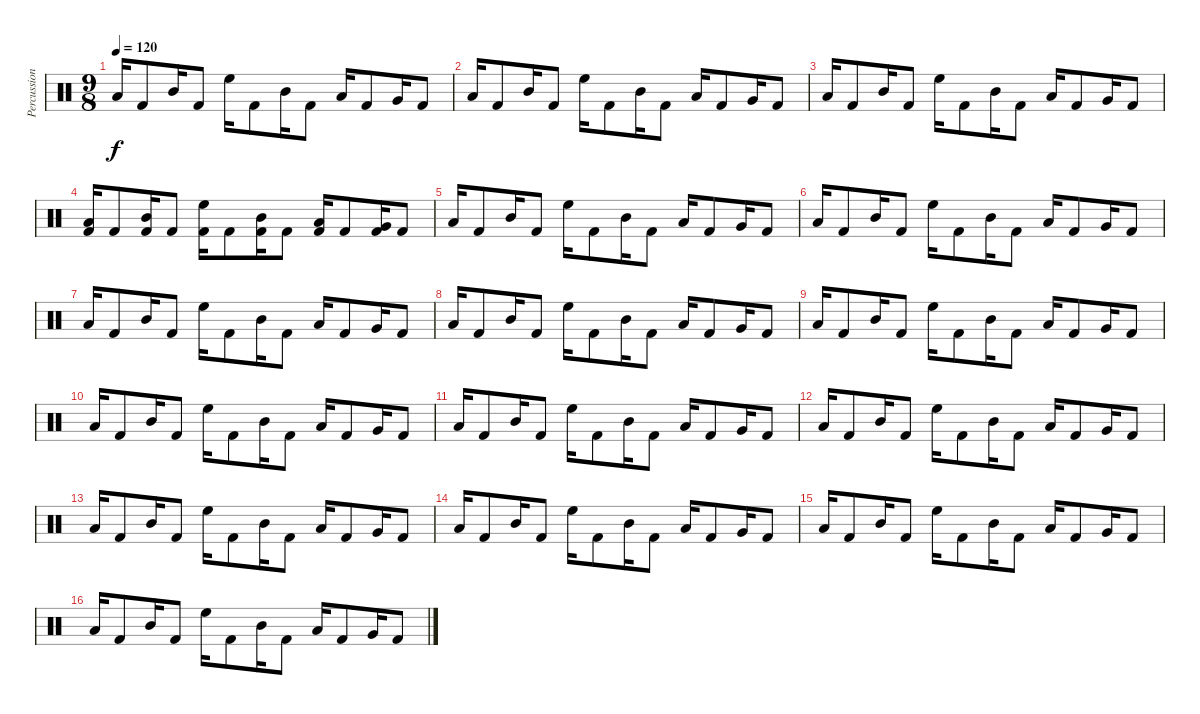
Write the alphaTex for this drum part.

\track ("Percussion" "Percussion") {instrument percussion}
\staff {score}
\articulation defaults
\ts (9 8)
\tempo 120
\clef neutral
\ks c "Low Tom (hit)".16{dy f} "Kick (hit) 2".8 "Mid Tom (hit)".16 "Kick (hit) 2".8 "High Floor Tom (hit)".16 "Kick (hit) 2".8 "Mid Tom (hit)".16 "Kick (hit) 2".8 "Low Tom (hit)".16 "Kick (hit) 2".8 "Very Low Tom (hit)".16 "Kick (hit) 2".8
|
"Low Tom (hit)".16 "Kick (hit) 2".8 "Mid Tom (hit)".16 "Kick (hit) 2".8 "High Floor Tom (hit)".16 "Kick (hit) 2".8 "Mid Tom (hit)".16 "Kick (hit) 2".8 "Low Tom (hit)".16 "Kick (hit) 2".8 "Very Low Tom (hit)".16 "Kick (hit) 2".8 |
"Low Tom (hit)".16 "Kick (hit) 2".8 "Mid Tom (hit)".16 "Kick (hit) 2".8 "High Floor Tom (hit)".16 "Kick (hit) 2".8 "Mid Tom (hit)".16 "Kick (hit) 2".8 "Low Tom (hit)".16 "Kick (hit) 2".8 "Very Low Tom (hit)".16 "Kick (hit) 2".8 |
("Kick (hit) 2" "Low Tom (hit)").16 "Kick (hit) 2".8 ("Kick (hit) 2" "Mid Tom (hit)").16 "Kick (hit) 2".8 ("Kick (hit) 2" "High Floor Tom (hit)").16 "Kick (hit) 2".8 ("Kick (hit) 2" "Mid Tom (hit)").16 "Kick (hit) 2".8 ("Kick (hit) 2" "Low Tom (hit)").16 "Kick (hit) 2".8 ("Kick (hit) 2" "Very Low Tom (hit)").16 "Kick (hit) 2".8 |
"Low Tom (hit)".16 "Kick (hit) 2".8 "Mid Tom (hit)".16 "Kick (hit) 2".8 "High Floor Tom (hit)".16 "Kick (hit) 2".8 "Mid Tom (hit)".16 "Kick (hit) 2".8 "Low Tom (hit)".16 "Kick (hit) 2".8 "Very Low Tom (hit)".16 "Kick (hit) 2".8 |
"Low Tom (hit)".16 "Kick (hit) 2".8 "Mid Tom (hit)".16 "Kick (hit) 2".8 "High Floor Tom (hit)".16 "Kick (hit) 2".8 "Mid Tom (hit)".16 "Kick (hit) 2".8 "Low Tom (hit)".16 "Kick (hit) 2".8 "Very Low Tom (hit)".16 "Kick (hit) 2".8 |
"Low Tom (hit)".16 "Kick (hit) 2".8 "Mid Tom (hit)".16 "Kick (hit) 2".8 "High Floor Tom (hit)".16 "Kick (hit) 2".8 "Mid Tom (hit)".16 "Kick (hit) 2".8 "Low Tom (hit)".16 "Kick (hit) 2".8 "Very Low Tom (hit)".16 "Kick (hit) 2".8 |
"Low Tom (hit)".16 "Kick (hit) 2".8 "Mid Tom (hit)".16 "Kick (hit) 2".8 "High Floor Tom (hit)".16 "Kick (hit) 2".8 "Mid Tom (hit)".16 "Kick (hit) 2".8 "Low Tom (hit)".16 "Kick (hit) 2".8 "Very Low Tom (hit)".16 "Kick (hit) 2".8 |
"Low Tom (hit)".16 "Kick (hit) 2".8 "Mid Tom (hit)".16 "Kick (hit) 2".8 "High Floor Tom (hit)".16 "Kick (hit) 2".8 "Mid Tom (hit)".16 "Kick (hit) 2".8 "Low Tom (hit)".16 "Kick (hit) 2".8 "Very Low Tom (hit)".16 "Kick (hit) 2".8 |
"Low Tom (hit)".16 "Kick (hit) 2".8 "Mid Tom (hit)".16 "Kick (hit) 2".8 "High Floor Tom (hit)".16 "Kick (hit) 2".8 "Mid Tom (hit)".16 "Kick (hit) 2".8 "Low Tom (hit)".16 "Kick (hit) 2".8 "Very Low Tom (hit)".16 "Kick (hit) 2".8 |
"Low Tom (hit)".16 "Kick (hit) 2".8 "Mid Tom (hit)".16 "Kick (hit) 2".8 "High Floor Tom (hit)".16 "Kick (hit) 2".8 "Mid Tom (hit)".16 "Kick (hit) 2".8 "Low Tom (hit)".16 "Kick (hit) 2".8 "Very Low Tom (hit)".16 "Kick (hit) 2".8 |
"Low Tom (hit)".16 "Kick (hit) 2".8 "Mid Tom (hit)".16 "Kick (hit) 2".8 "High Floor Tom (hit)".16 "Kick (hit) 2".8 "Mid Tom (hit)".16 "Kick (hit) 2".8 "Low Tom (hit)".16 "Kick (hit) 2".8 "Very Low Tom (hit)".16 "Kick (hit) 2".8 |
"Low Tom (hit)".16 "Kick (hit) 2".8 "Mid Tom (hit)".16 "Kick (hit) 2".8 "High Floor Tom (hit)".16 "Kick (hit) 2".8 "Mid Tom (hit)".16 "Kick (hit) 2".8 "Low Tom (hit)".16 "Kick (hit) 2".8 "Very Low Tom (hit)".16 "Kick (hit) 2".8 |
"Low Tom (hit)".16 "Kick (hit) 2".8 "Mid Tom (hit)".16 "Kick (hit) 2".8 "High Floor Tom (hit)".16 "Kick (hit) 2".8 "Mid Tom (hit)".16 "Kick (hit) 2".8 "Low Tom (hit)".16 "Kick (hit) 2".8 "Very Low Tom (hit)".16 "Kick (hit) 2".8 |
"Low Tom (hit)".16 "Kick (hit) 2".8 "Mid Tom (hit)".16 "Kick (hit) 2".8 "High Floor Tom (hit)".16 "Kick (hit) 2".8 "Mid Tom (hit)".16 "Kick (hit) 2".8 "Low Tom (hit)".16 "Kick (hit) 2".8 "Very Low Tom (hit)".16 "Kick (hit) 2".8 |
"Low Tom (hit)".16 "Kick (hit) 2".8 "Mid Tom (hit)".16 "Kick (hit) 2".8 "High Floor Tom (hit)".16 "Kick (hit) 2".8 "Mid Tom (hit)".16 "Kick (hit) 2".8 "Low Tom (hit)".16 "Kick (hit) 2".8 "Very Low Tom (hit)".16 "Kick (hit) 2".8
